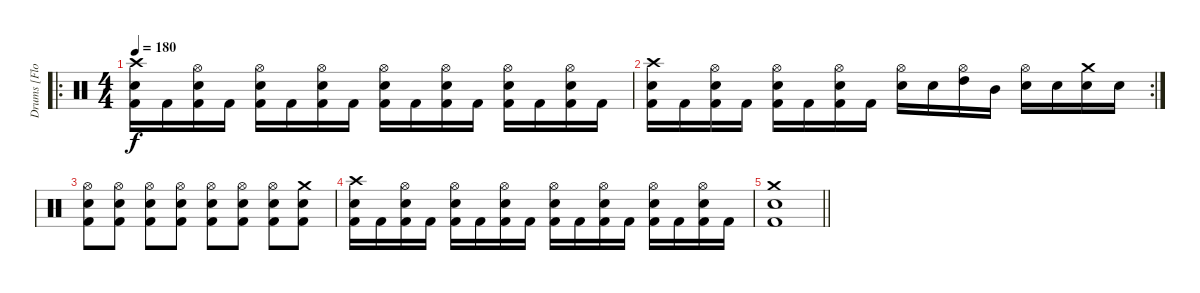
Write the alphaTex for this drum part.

\track ("Drums [Flo Mournier]" "Drums [Flo") {instrument percussion}
\staff {score}
\articulation defaults
\ro
\ts (4 4)
\tempo 180
\clef neutral
\ks c
("Crash high (hit)" "Electric Snare (hit)" "Kick (hit) 2").16{dy f} "Kick (hit) 2".16 ("Hi-Hat (open)" "Electric Snare (hit)" "Kick (hit) 2").16 "Kick (hit) 2".16 ("Hi-Hat (open)" "Electric Snare (hit)" "Kick (hit) 2").16 "Kick (hit) 2".16 ("Hi-Hat (open)" "Electric Snare (hit)" "Kick (hit) 2").16 "Kick (hit) 2".16 ("Hi-Hat (open)" "Electric Snare (hit)" "Kick (hit) 2").16 "Kick (hit) 2".16 ("Hi-Hat (open)" "Electric Snare (hit)" "Kick (hit) 2").16 "Kick (hit) 2".16 ("Hi-Hat (open)" "Electric Snare (hit)" "Kick (hit) 2").16 "Kick (hit) 2".16 ("Hi-Hat (open)" "Electric Snare (hit)" "Kick (hit) 2").16 "Kick (hit) 2".16 |
\rc 2
("Crash high (hit)" "Electric Snare (hit)" "Kick (hit) 2").16 "Kick (hit) 2".16 ("Hi-Hat (open)" "Electric Snare (hit)" "Kick (hit) 2").16 "Kick (hit) 2".16 ("Hi-Hat (open)" "Electric Snare (hit)" "Kick (hit) 2").16 "Kick (hit) 2".16 ("Hi-Hat (open)" "Electric Snare (hit)" "Kick (hit) 2").16 "Kick (hit) 2".16 ("Hi-Hat (open)" "Electric Snare (hit)").16 "Electric Snare (hit)".16 ("Hi-Hat (open)" "High Tom (hit)").16 "Mid Tom (hit)".16 ("Hi-Hat (open)" "Electric Snare (hit)").16 "Electric Snare (hit)".16 ("Crash medium (hit)" "Electric Snare (hit)").16 "Electric Snare (hit)".16 |
("Hi-Hat (open)" "Electric Snare (hit)" "Kick (hit) 2").8 ("Hi-Hat (open)" "Electric Snare (hit)" "Kick (hit) 2").8 ("Hi-Hat (open)" "Electric Snare (hit)" "Kick (hit) 2").8 ("Hi-Hat (open)" "Electric Snare (hit)" "Kick (hit) 2").8 ("Hi-Hat (open)" "Electric Snare (hit)" "Kick (hit) 2").8 ("Hi-Hat (open)" "Electric Snare (hit)" "Kick (hit) 2").8 ("Hi-Hat (open)" "Electric Snare (hit)" "Kick (hit) 2").8 ("Crash medium (hit)" "Electric Snare (hit)" "Kick (hit) 2").8 |
("Crash high (hit)" "Electric Snare (hit)" "Kick (hit) 2").16 "Kick (hit) 2".16 ("Hi-Hat (open)" "Electric Snare (hit)" "Kick (hit) 2").16 "Kick (hit) 2".16 ("Hi-Hat (open)" "Electric Snare (hit)" "Kick (hit) 2").16 "Kick (hit) 2".16 ("Hi-Hat (open)" "Electric Snare (hit)" "Kick (hit) 2").16 "Kick (hit) 2".16 ("Hi-Hat (open)" "Electric Snare (hit)" "Kick (hit) 2").16 "Kick (hit) 2".16 ("Hi-Hat (open)" "Electric Snare (hit)" "Kick (hit) 2").16 "Kick (hit) 2".16 ("Hi-Hat (open)" "Electric Snare (hit)" "Kick (hit) 2").16 "Kick (hit) 2".16 ("Hi-Hat (open)" "Electric Snare (hit)" "Kick (hit) 2").16 "Kick (hit) 2".16 |
\barLineRight lightlight
("Crash medium (hit)" "Electric Snare (hit)" "Kick (hit) 2").1
